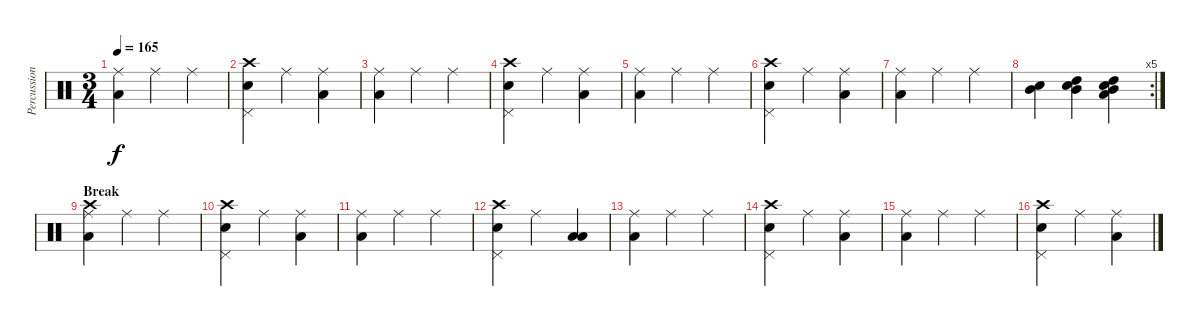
\track ("Percussions" "Percussion") {instrument percussion}
\staff {score}
\articulation defaults
\ts (3 4)
\tempo 165
\clef neutral
\ks c
("Ride (middle)" "Low Floor Tom (hit)").4{dy f} "Ride (middle)".4 "Ride (middle)".4 |
("Crash high (hit)" "Snare (hit) 2" "Pedal Hi-Hat (hit)").4 "Ride (middle)".4 ("Ride (middle)" "Low Floor Tom (hit)").4 |
("Ride (middle)" "Low Floor Tom (hit)").4 "Ride (middle)".4 "Ride (middle)".4 |
("Crash high (hit)" "Snare (hit) 2" "Pedal Hi-Hat (hit)").4 "Ride (middle)".4 ("Ride (middle)" "Low Floor Tom (hit)").4 |
("Ride (middle)" "Low Floor Tom (hit)").4 "Ride (middle)".4 "Ride (middle)".4 |
("Crash high (hit)" "Snare (hit) 2" "Pedal Hi-Hat (hit)").4 "Ride (middle)".4 ("Ride (middle)" "Low Floor Tom (hit)").4 |
("Ride (middle)" "Low Floor Tom (hit)").4 "Ride (middle)".4 "Ride (middle)".4 |
\rc 5
("Mid Tom (hit)" "Snare (hit) 2").4 ("High Tom (hit)" "Mid Tom (hit)" "Snare (hit) 2").4 ("High Tom (hit)" "Mid Tom (hit)" "Snare (hit) 2" "Low Floor Tom (hit)").4 |
\section ("" "Break")
("Crash high (hit)" "Ride (middle)" "Low Floor Tom (hit)").4 "Ride (middle)".4 "Ride (middle)".4 |
("Crash high (hit)" "Snare (hit) 2" "Pedal Hi-Hat (hit)").4 "Ride (middle)".4 ("Ride (middle)" "Low Floor Tom (hit)").4 |
("Ride (middle)" "Low Floor Tom (hit)").4 "Ride (middle)".4 "Ride (middle)".4 |
("Crash high (hit)" "Snare (hit) 2" "Pedal Hi-Hat (hit)").4 "Ride (middle)".4 ("Low Floor Tom (hit)" "Low Floor Tom (hit)").4 |
("Ride (middle)" "Low Floor Tom (hit)").4 "Ride (middle)".4 "Ride (middle)".4 |
("Crash high (hit)" "Snare (hit) 2" "Pedal Hi-Hat (hit)").4 "Ride (middle)".4 ("Ride (middle)" "Low Floor Tom (hit)").4 |
("Ride (middle)" "Low Floor Tom (hit)").4 "Ride (middle)".4 "Ride (middle)".4 |
("Crash high (hit)" "Snare (hit) 2" "Pedal Hi-Hat (hit)").4 "Ride (middle)".4 ("Ride (middle)" "Low Floor Tom (hit)").4
